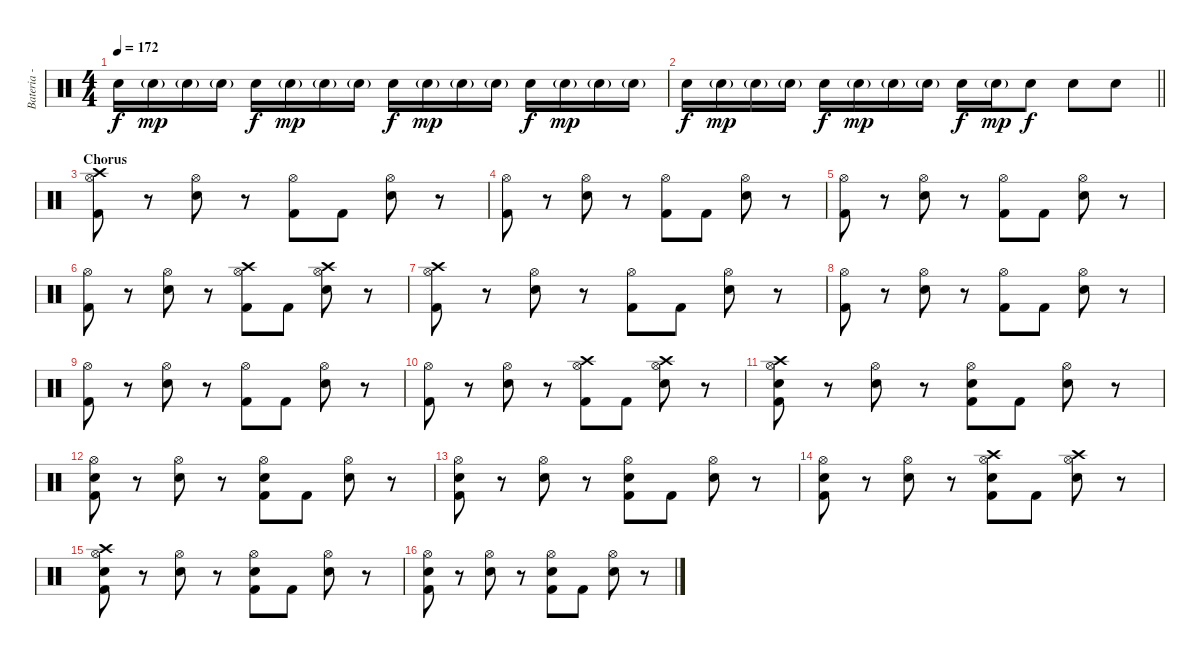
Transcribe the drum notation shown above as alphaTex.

\track ("Bateria - Larzon" "Bateria - ") {instrument percussion}
\staff {score}
\articulation defaults
\ts (4 4)
\tempo 172
\clef neutral
\ks c "Snare (hit) 2".16{dy f} "Snare (hit) 2"{g}.16{dy mp} "Snare (hit) 2"{g}.16 "Snare (hit) 2"{g}.16 "Snare (hit) 2".16{dy f} "Snare (hit) 2"{g}.16{dy mp} "Snare (hit) 2"{g}.16 "Snare (hit) 2"{g}.16 "Snare (hit) 2".16{dy f} "Snare (hit) 2"{g}.16{dy mp} "Snare (hit) 2"{g}.16 "Snare (hit) 2"{g}.16 "Snare (hit) 2".16{dy f} "Snare (hit) 2"{g}.16{dy mp} "Snare (hit) 2"{g}.16 "Snare (hit) 2"{g}.16
|
\barLineRight lightlight "Snare (hit) 2".16{dy f} "Snare (hit) 2"{g}.16{dy mp} "Snare (hit) 2"{g}.16 "Snare (hit) 2"{g}.16 "Snare (hit) 2".16{dy f} "Snare (hit) 2"{g}.16{dy mp} "Snare (hit) 2"{g}.16 "Snare (hit) 2"{g}.16 "Snare (hit) 2".16{dy f} "Snare (hit) 2"{g}.16{dy mp} "Snare (hit) 2".8{dy f} "Snare (hit) 2".8 "Snare (hit) 2".8
|
\section ("" "Chorus")
("Kick (hit) 2" "Hi-Hat (open)" "Crash high (hit)").8 r.8 ("Snare (hit) 2" "Hi-Hat (open)").8 r.8 ("Kick (hit) 2" "Hi-Hat (open)").8 "Kick (hit) 2".8 ("Snare (hit) 2" "Hi-Hat (open)").8 r.8 |
("Kick (hit) 2" "Hi-Hat (open)").8 r.8 ("Snare (hit) 2" "Hi-Hat (open)").8 r.8 ("Kick (hit) 2" "Hi-Hat (open)").8 "Kick (hit) 2".8 ("Snare (hit) 2" "Hi-Hat (open)").8 r.8 |
("Kick (hit) 2" "Hi-Hat (open)").8 r.8 ("Snare (hit) 2" "Hi-Hat (open)").8 r.8 ("Kick (hit) 2" "Hi-Hat (open)").8 "Kick (hit) 2".8 ("Snare (hit) 2" "Hi-Hat (open)").8 r.8 |
("Kick (hit) 2" "Hi-Hat (open)").8 r.8 ("Snare (hit) 2" "Hi-Hat (open)").8 r.8 ("Kick (hit) 2" "Hi-Hat (open)" "Crash high (hit)").8 "Kick (hit) 2".8 ("Snare (hit) 2" "Hi-Hat (open)" "Crash high (hit)").8 r.8 |
("Kick (hit) 2" "Hi-Hat (open)" "Crash high (hit)").8 r.8 ("Snare (hit) 2" "Hi-Hat (open)").8 r.8 ("Kick (hit) 2" "Hi-Hat (open)").8 "Kick (hit) 2".8 ("Snare (hit) 2" "Hi-Hat (open)").8 r.8 |
("Kick (hit) 2" "Hi-Hat (open)").8 r.8 ("Snare (hit) 2" "Hi-Hat (open)").8 r.8 ("Kick (hit) 2" "Hi-Hat (open)").8 "Kick (hit) 2".8 ("Snare (hit) 2" "Hi-Hat (open)").8 r.8 |
("Kick (hit) 2" "Hi-Hat (open)").8 r.8 ("Snare (hit) 2" "Hi-Hat (open)").8 r.8 ("Kick (hit) 2" "Hi-Hat (open)").8 "Kick (hit) 2".8 ("Snare (hit) 2" "Hi-Hat (open)").8 r.8 |
("Kick (hit) 2" "Hi-Hat (open)").8 r.8 ("Snare (hit) 2" "Hi-Hat (open)").8 r.8 ("Kick (hit) 2" "Hi-Hat (open)" "Crash high (hit)").8 "Kick (hit) 2".8 ("Snare (hit) 2" "Hi-Hat (open)" "Crash high (hit)").8 r.8 |
("Kick (hit) 2" "Snare (hit) 2" "Hi-Hat (open)" "Crash high (hit)").8 r.8 ("Snare (hit) 2" "Hi-Hat (open)").8 r.8 ("Kick (hit) 2" "Snare (hit) 2" "Hi-Hat (open)").8 "Kick (hit) 2".8 ("Snare (hit) 2" "Hi-Hat (open)").8 r.8 |
("Kick (hit) 2" "Snare (hit) 2" "Hi-Hat (open)").8 r.8 ("Snare (hit) 2" "Hi-Hat (open)").8 r.8 ("Kick (hit) 2" "Snare (hit) 2" "Hi-Hat (open)").8 "Kick (hit) 2".8 ("Snare (hit) 2" "Hi-Hat (open)").8 r.8 |
("Kick (hit) 2" "Snare (hit) 2" "Hi-Hat (open)").8 r.8 ("Snare (hit) 2" "Hi-Hat (open)").8 r.8 ("Kick (hit) 2" "Snare (hit) 2" "Hi-Hat (open)").8 "Kick (hit) 2".8 ("Snare (hit) 2" "Hi-Hat (open)").8 r.8 |
("Kick (hit) 2" "Snare (hit) 2" "Hi-Hat (open)").8 r.8 ("Snare (hit) 2" "Hi-Hat (open)").8 r.8 ("Kick (hit) 2" "Snare (hit) 2" "Hi-Hat (open)" "Crash high (hit)").8 "Kick (hit) 2".8 ("Snare (hit) 2" "Hi-Hat (open)" "Crash high (hit)").8 r.8 |
("Kick (hit) 2" "Snare (hit) 2" "Hi-Hat (open)" "Crash high (hit)").8 r.8 ("Snare (hit) 2" "Hi-Hat (open)").8 r.8 ("Kick (hit) 2" "Snare (hit) 2" "Hi-Hat (open)").8 "Kick (hit) 2".8 ("Snare (hit) 2" "Hi-Hat (open)").8 r.8 |
("Kick (hit) 2" "Snare (hit) 2" "Hi-Hat (open)").8 r.8 ("Snare (hit) 2" "Hi-Hat (open)").8 r.8 ("Kick (hit) 2" "Snare (hit) 2" "Hi-Hat (open)").8 "Kick (hit) 2".8 ("Snare (hit) 2" "Hi-Hat (open)").8 r.8
